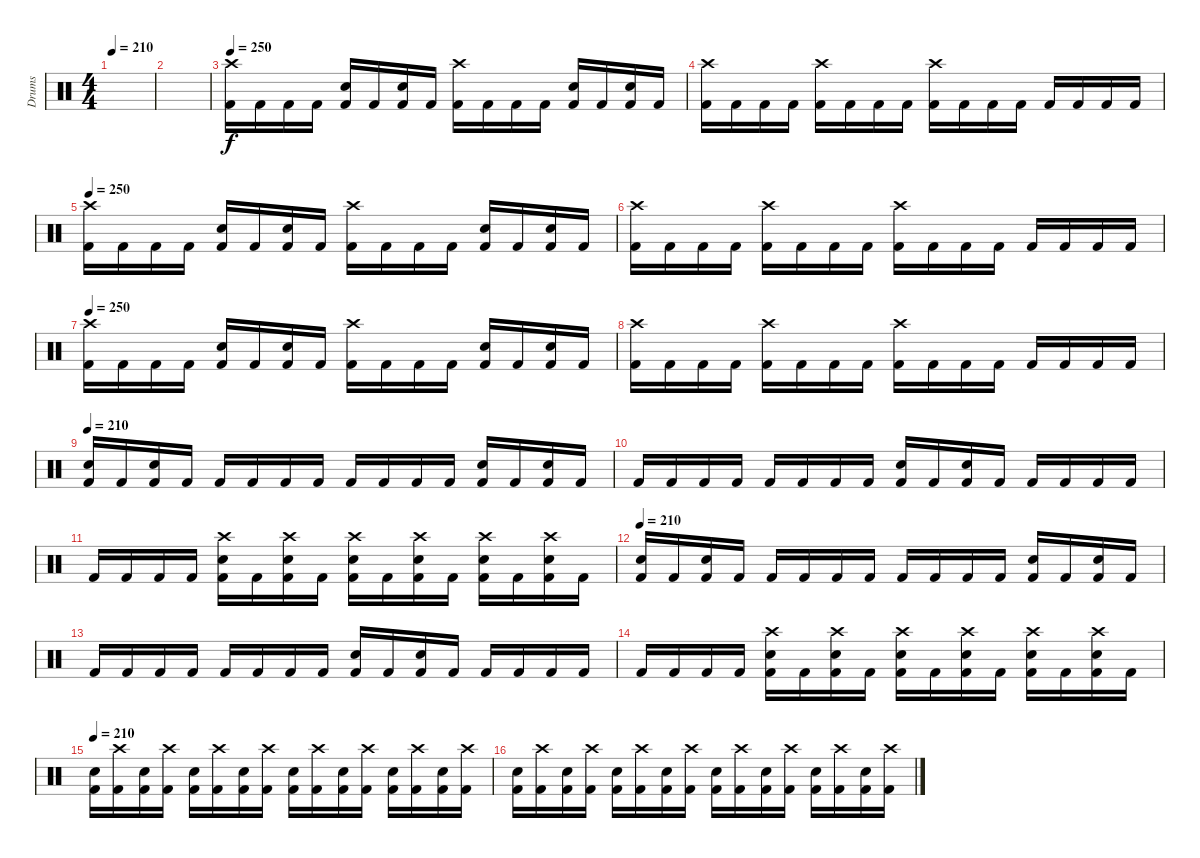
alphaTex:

\track ("Drums" "Drums") {instrument percussion}
\staff {score}
\articulation defaults
\ts (4 4)
\tempo 210
\tempo 250
\tempo 210
\clef neutral
\ks c
|
|
\tempo 250
("Crash high (hit)" "Kick (hit) 2").16 "Kick (hit) 2".16 "Kick (hit) 2".16 "Kick (hit) 2".16 ("Snare (hit) 2" "Kick (hit) 2").16 "Kick (hit) 2".16 ("Snare (hit) 2" "Kick (hit) 2").16 "Kick (hit) 2".16 ("Crash high (hit)" "Kick (hit) 2").16 "Kick (hit) 2".16 "Kick (hit) 2".16 "Kick (hit) 2".16 ("Snare (hit) 2" "Kick (hit) 2").16 "Kick (hit) 2".16 ("Snare (hit) 2" "Kick (hit) 2").16 "Kick (hit) 2".16 |
("Crash high (hit)" "Kick (hit) 2").16 "Kick (hit) 2".16 "Kick (hit) 2".16 "Kick (hit) 2".16 ("Crash high (hit)" "Kick (hit) 2").16 "Kick (hit) 2".16 "Kick (hit) 2".16 "Kick (hit) 2".16 ("Crash high (hit)" "Kick (hit) 2").16 "Kick (hit) 2".16 "Kick (hit) 2".16 "Kick (hit) 2".16 "Kick (hit) 2".16 "Kick (hit) 2".16 "Kick (hit) 2".16 "Kick (hit) 2".16 |
\tempo 250
("Crash high (hit)" "Kick (hit) 2").16 "Kick (hit) 2".16 "Kick (hit) 2".16 "Kick (hit) 2".16 ("Snare (hit) 2" "Kick (hit) 2").16 "Kick (hit) 2".16 ("Snare (hit) 2" "Kick (hit) 2").16 "Kick (hit) 2".16 ("Crash high (hit)" "Kick (hit) 2").16 "Kick (hit) 2".16 "Kick (hit) 2".16 "Kick (hit) 2".16 ("Snare (hit) 2" "Kick (hit) 2").16 "Kick (hit) 2".16 ("Snare (hit) 2" "Kick (hit) 2").16 "Kick (hit) 2".16 |
("Crash high (hit)" "Kick (hit) 2").16 "Kick (hit) 2".16 "Kick (hit) 2".16 "Kick (hit) 2".16 ("Crash high (hit)" "Kick (hit) 2").16 "Kick (hit) 2".16 "Kick (hit) 2".16 "Kick (hit) 2".16 ("Crash high (hit)" "Kick (hit) 2").16 "Kick (hit) 2".16 "Kick (hit) 2".16 "Kick (hit) 2".16 "Kick (hit) 2".16 "Kick (hit) 2".16 "Kick (hit) 2".16 "Kick (hit) 2".16 |
\tempo 250
("Crash high (hit)" "Kick (hit) 2").16 "Kick (hit) 2".16 "Kick (hit) 2".16 "Kick (hit) 2".16 ("Snare (hit) 2" "Kick (hit) 2").16 "Kick (hit) 2".16 ("Snare (hit) 2" "Kick (hit) 2").16 "Kick (hit) 2".16 ("Crash high (hit)" "Kick (hit) 2").16 "Kick (hit) 2".16 "Kick (hit) 2".16 "Kick (hit) 2".16 ("Snare (hit) 2" "Kick (hit) 2").16 "Kick (hit) 2".16 ("Snare (hit) 2" "Kick (hit) 2").16 "Kick (hit) 2".16 |
("Crash high (hit)" "Kick (hit) 2").16 "Kick (hit) 2".16 "Kick (hit) 2".16 "Kick (hit) 2".16 ("Crash high (hit)" "Kick (hit) 2").16 "Kick (hit) 2".16 "Kick (hit) 2".16 "Kick (hit) 2".16 ("Crash high (hit)" "Kick (hit) 2").16 "Kick (hit) 2".16 "Kick (hit) 2".16 "Kick (hit) 2".16 "Kick (hit) 2".16 "Kick (hit) 2".16 "Kick (hit) 2".16 "Kick (hit) 2".16 |
\tempo 210
("Snare (hit) 2" "Kick (hit) 2").16 "Kick (hit) 2".16 ("Snare (hit) 2" "Kick (hit) 2").16 "Kick (hit) 2".16 "Kick (hit) 2".16 "Kick (hit) 2".16 "Kick (hit) 2".16 "Kick (hit) 2".16 "Kick (hit) 2".16 "Kick (hit) 2".16 "Kick (hit) 2".16 "Kick (hit) 2".16 ("Snare (hit) 2" "Kick (hit) 2").16 "Kick (hit) 2".16 ("Snare (hit) 2" "Kick (hit) 2").16 "Kick (hit) 2".16 |
"Kick (hit) 2".16 "Kick (hit) 2".16 "Kick (hit) 2".16 "Kick (hit) 2".16 "Kick (hit) 2".16 "Kick (hit) 2".16 "Kick (hit) 2".16 "Kick (hit) 2".16 ("Snare (hit) 2" "Kick (hit) 2").16 "Kick (hit) 2".16 ("Snare (hit) 2" "Kick (hit) 2").16 "Kick (hit) 2".16 "Kick (hit) 2".16 "Kick (hit) 2".16 "Kick (hit) 2".16 "Kick (hit) 2".16 |
"Kick (hit) 2".16 "Kick (hit) 2".16 "Kick (hit) 2".16 "Kick (hit) 2".16 ("Crash high (hit)" "Snare (hit) 2" "Kick (hit) 2").16 "Kick (hit) 2".16 ("Crash high (hit)" "Snare (hit) 2" "Kick (hit) 2").16 "Kick (hit) 2".16 ("Crash high (hit)" "Snare (hit) 2" "Kick (hit) 2").16 "Kick (hit) 2".16 ("Crash high (hit)" "Snare (hit) 2" "Kick (hit) 2").16 "Kick (hit) 2".16 ("Crash high (hit)" "Snare (hit) 2" "Kick (hit) 2").16 "Kick (hit) 2".16 ("Crash high (hit)" "Snare (hit) 2" "Kick (hit) 2").16 "Kick (hit) 2".16 |
\tempo 210
("Snare (hit) 2" "Kick (hit) 2").16 "Kick (hit) 2".16 ("Snare (hit) 2" "Kick (hit) 2").16 "Kick (hit) 2".16 "Kick (hit) 2".16 "Kick (hit) 2".16 "Kick (hit) 2".16 "Kick (hit) 2".16 "Kick (hit) 2".16 "Kick (hit) 2".16 "Kick (hit) 2".16 "Kick (hit) 2".16 ("Snare (hit) 2" "Kick (hit) 2").16 "Kick (hit) 2".16 ("Snare (hit) 2" "Kick (hit) 2").16 "Kick (hit) 2".16 |
"Kick (hit) 2".16 "Kick (hit) 2".16 "Kick (hit) 2".16 "Kick (hit) 2".16 "Kick (hit) 2".16 "Kick (hit) 2".16 "Kick (hit) 2".16 "Kick (hit) 2".16 ("Snare (hit) 2" "Kick (hit) 2").16 "Kick (hit) 2".16 ("Snare (hit) 2" "Kick (hit) 2").16 "Kick (hit) 2".16 "Kick (hit) 2".16 "Kick (hit) 2".16 "Kick (hit) 2".16 "Kick (hit) 2".16 |
"Kick (hit) 2".16 "Kick (hit) 2".16 "Kick (hit) 2".16 "Kick (hit) 2".16 ("Crash high (hit)" "Snare (hit) 2" "Kick (hit) 2").16 "Kick (hit) 2".16 ("Crash high (hit)" "Snare (hit) 2" "Kick (hit) 2").16 "Kick (hit) 2".16 ("Crash high (hit)" "Snare (hit) 2" "Kick (hit) 2").16 "Kick (hit) 2".16 ("Crash high (hit)" "Snare (hit) 2" "Kick (hit) 2").16 "Kick (hit) 2".16 ("Crash high (hit)" "Snare (hit) 2" "Kick (hit) 2").16 "Kick (hit) 2".16 ("Crash high (hit)" "Snare (hit) 2" "Kick (hit) 2").16 "Kick (hit) 2".16 |
\tempo 210
("Snare (hit) 2" "Kick (hit) 2").16 ("Crash high (hit)" "Kick (hit) 2").16 ("Snare (hit) 2" "Kick (hit) 2").16 ("Crash high (hit)" "Kick (hit) 2").16 ("Snare (hit) 2" "Kick (hit) 2").16 ("Crash high (hit)" "Kick (hit) 2").16 ("Snare (hit) 2" "Kick (hit) 2").16 ("Crash high (hit)" "Kick (hit) 2").16 ("Snare (hit) 2" "Kick (hit) 2").16 ("Crash high (hit)" "Kick (hit) 2").16 ("Snare (hit) 2" "Kick (hit) 2").16 ("Crash high (hit)" "Kick (hit) 2").16 ("Snare (hit) 2" "Kick (hit) 2").16 ("Crash high (hit)" "Kick (hit) 2").16 ("Snare (hit) 2" "Kick (hit) 2").16 ("Crash high (hit)" "Kick (hit) 2").16 |
("Snare (hit) 2" "Kick (hit) 2").16 ("Crash high (hit)" "Kick (hit) 2").16 ("Snare (hit) 2" "Kick (hit) 2").16 ("Crash high (hit)" "Kick (hit) 2").16 ("Snare (hit) 2" "Kick (hit) 2").16 ("Crash high (hit)" "Kick (hit) 2").16 ("Snare (hit) 2" "Kick (hit) 2").16 ("Crash high (hit)" "Kick (hit) 2").16 ("Snare (hit) 2" "Kick (hit) 2").16 ("Crash high (hit)" "Kick (hit) 2").16 ("Snare (hit) 2" "Kick (hit) 2").16 ("Crash high (hit)" "Kick (hit) 2").16 ("Snare (hit) 2" "Kick (hit) 2").16 ("Crash high (hit)" "Kick (hit) 2").16 ("Snare (hit) 2" "Kick (hit) 2").16 ("Crash high (hit)" "Kick (hit) 2").16
